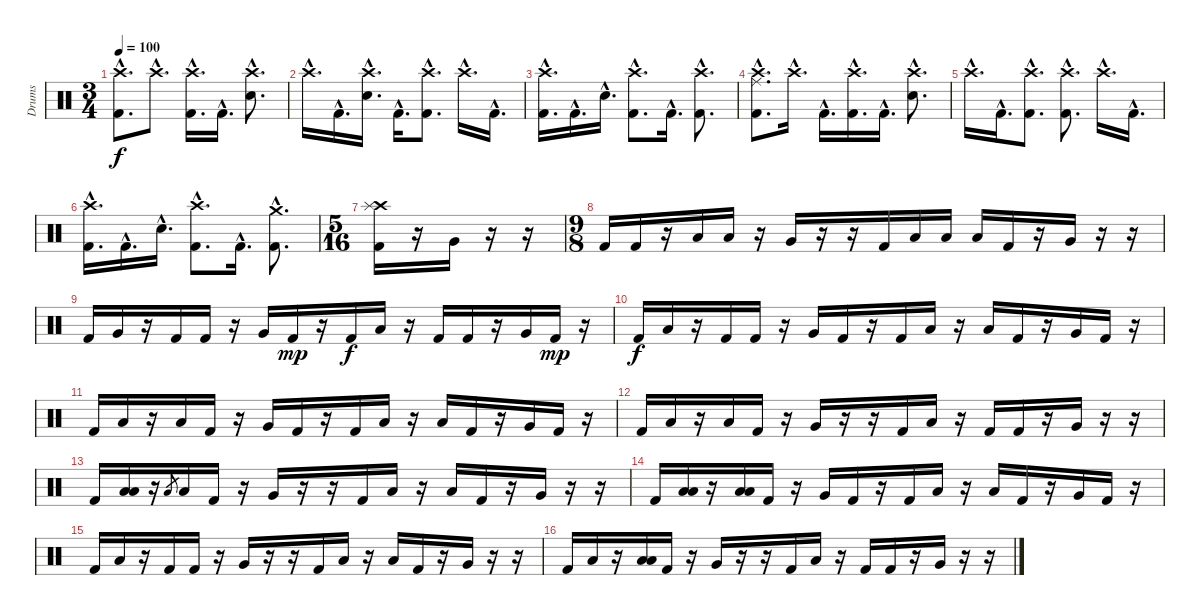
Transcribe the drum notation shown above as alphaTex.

\track ("Drums" "Drums") {instrument percussion}
\staff {score}
\articulation defaults
\ts (3 4)
\tempo 100
\clef neutral
\ks c
("Crash high (hit)"{hac} "Kick (hit) 2"{hac}).8{d dy f} "Crash high (hit)"{hac}.8{d} ("Crash high (hit)"{hac} "Kick (hit) 2"{hac}).16{d} "Kick (hit) 2"{hac}.16{d} ("Crash high (hit)"{hac} "Electric Snare (hit)"{hac}).8{d} |
"Crash high (hit)"{hac}.16{d} "Kick (hit) 2"{hac}.16{d} ("Crash high (hit)"{hac} "Electric Snare (hit)"{hac}).16{d} "Kick (hit) 2"{hac}.16{d} ("Crash high (hit)"{hac} "Kick (hit) 2"{hac}).8{d} "Crash high (hit)"{hac}.16{d} "Kick (hit) 2"{hac}.16{d} |
("Crash high (hit)"{hac} "Kick (hit) 2"{hac}).16{d} "Kick (hit) 2"{hac}.16{d} "Electric Snare (hit)"{hac}.16{d} ("Crash high (hit)"{hac} "Kick (hit) 2"{hac}).8{d} "Kick (hit) 2"{hac}.16{d} ("Crash high (hit)"{hac} "Kick (hit) 2"{hac}).8{d} |
("Crash high (hit)"{hac} "Ride (middle)"{hac} "Kick (hit) 2"{hac}).8{d} "Crash high (hit)"{hac}.16{d} "Kick (hit) 2"{hac}.16{d} ("Crash high (hit)"{hac} "Kick (hit) 2"{hac}).16{d} "Kick (hit) 2"{hac}.16{d} ("Crash high (hit)"{hac} "Electric Snare (hit)"{hac}).8{d} |
"Crash high (hit)"{hac}.16{d} "Kick (hit) 2"{hac}.16{d} ("Crash high (hit)"{hac} "Kick (hit) 2"{hac}).8{d} ("Crash high (hit)"{hac} "Kick (hit) 2"{hac}).8{d} "Crash high (hit)"{hac}.16{d} "Kick (hit) 2"{hac}.16{d} |
("Crash high (hit)"{hac} "Kick (hit) 2"{hac}).16{d} "Kick (hit) 2"{hac}.16{d} "Electric Snare (hit)"{hac}.16{d} ("Crash high (hit)"{hac} "Kick (hit) 2"{hac}).8{d} "Kick (hit) 2"{hac}.16{d} ("Crash medium (hit)"{hac} "Kick (hit) 2"{hac}).8{d} |
\ts (5 16)
("Crash high (hit)" "Splash (hit)" "Kick (hit) 2").16 r.16 "Very Low Tom (hit)".16 r.16 r.16 |
\ts (9 8)
"Kick (hit) 2".16 "Kick (hit) 2".16 r.16 "Low Floor Tom (hit)".16 "Low Floor Tom (hit)".16 r.16 "Very Low Tom (hit)".16 r.16 r.16 "Kick (hit) 2".16 "Low Floor Tom (hit)".16 "Low Floor Tom (hit)".16 "Low Floor Tom (hit)".16 "Kick (hit) 2".16 r.16 "Very Low Tom (hit)".16 r.16 r.16 |
"Kick (hit) 2".16 "Very Low Tom (hit)".16 r.16 "Kick (hit) 2".16 "Kick (hit) 2".16 r.16 "Very Low Tom (hit)".16 "Kick (hit) 2".16{dy mp} r.16 "Kick (hit) 2".16{dy f} "Low Floor Tom (hit)".16 r.16 "Kick (hit) 2".16 "Kick (hit) 2".16 r.16 "Very Low Tom (hit)".16 "Kick (hit) 2".16{dy mp} r.16 |
"Kick (hit) 2".16{dy f} "Low Floor Tom (hit)".16 r.16 "Kick (hit) 2".16 "Kick (hit) 2".16 r.16 "Very Low Tom (hit)".16 "Kick (hit) 2".16 r.16 "Kick (hit) 2".16 "Low Floor Tom (hit)".16 r.16 "Low Floor Tom (hit)".16 "Kick (hit) 2".16 r.16 "Very Low Tom (hit)".16 "Kick (hit) 2".16 r.16 |
"Kick (hit) 2".16 "Low Floor Tom (hit)".16 r.16 "Low Floor Tom (hit)".16 "Kick (hit) 2".16 r.16 "Very Low Tom (hit)".16 "Kick (hit) 2".16 r.16 "Kick (hit) 2".16 "Low Floor Tom (hit)".16 r.16 "Low Floor Tom (hit)".16 "Kick (hit) 2".16 r.16 "Very Low Tom (hit)".16 "Kick (hit) 2".16 r.16 |
"Kick (hit) 2".16 "Low Floor Tom (hit)".16 r.16 "Low Floor Tom (hit)".16 "Kick (hit) 2".16 r.16 "Very Low Tom (hit)".16 r.16 r.16 "Kick (hit) 2".16 "Low Floor Tom (hit)".16 r.16 "Kick (hit) 2".16 "Kick (hit) 2".16 r.16 "Very Low Tom (hit)".16 r.16 r.16 |
"Kick (hit) 2".16{volume 8} ("Low Floor Tom (hit)" "Low Floor Tom (hit)").16{bd 480} r.16 "Low Floor Tom (hit)".8{gr} "Low Floor Tom (hit)".16 "Kick (hit) 2".16 r.16 "Very Low Tom (hit)".16 r.16 r.16 "Kick (hit) 2".16 "Low Floor Tom (hit)".16 r.16 "Low Floor Tom (hit)".16 "Kick (hit) 2".16 r.16 "Very Low Tom (hit)".16 r.16 r.16 |
"Kick (hit) 2".16 ("Low Floor Tom (hit)" "Low Floor Tom (hit)").16{bd 480} r.16 ("Low Floor Tom (hit)" "Low Floor Tom (hit)").16{bd 480} "Kick (hit) 2".16 r.16 "Very Low Tom (hit)".16 "Kick (hit) 2".16 r.16 "Kick (hit) 2".16 "Low Floor Tom (hit)".16 r.16 "Low Floor Tom (hit)".16 "Kick (hit) 2".16 r.16 "Very Low Tom (hit)".16 "Kick (hit) 2".16 r.16 |
"Kick (hit) 2".16 "Low Floor Tom (hit)".16 r.16 "Kick (hit) 2".16 "Kick (hit) 2".16 r.16 "Very Low Tom (hit)".16 r.16 r.16 "Kick (hit) 2".16 "Low Floor Tom (hit)".16 r.16 "Low Floor Tom (hit)".16 "Kick (hit) 2".16 r.16 "Very Low Tom (hit)".16 r.16 r.16 |
"Kick (hit) 2".16 "Low Floor Tom (hit)".16 r.16 ("Low Floor Tom (hit)" "Low Floor Tom (hit)").16{bd 480} "Kick (hit) 2".16 r.16 "Very Low Tom (hit)".16 r.16 r.16 "Kick (hit) 2".16 "Low Floor Tom (hit)".16 r.16 "Kick (hit) 2".16 "Kick (hit) 2".16 r.16 "Very Low Tom (hit)".16 r.16 r.16
